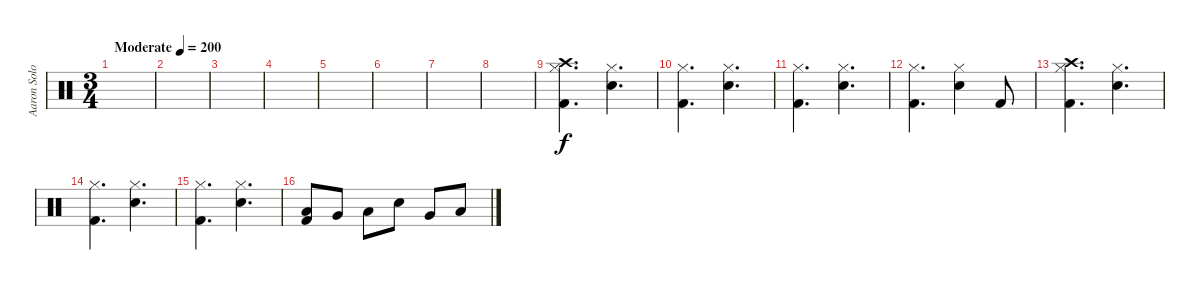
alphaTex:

\track ("Aaron Solowoniuk" "Aaron Solo") {instrument percussion}
\staff {score}
\articulation defaults
\ts (3 4)
\tempo (200 "Moderate")
\clef neutral
\ks c
|
|
|
|
|
|
|
|
("Crash high (hit)" "Hi-Hat (closed)" "Kick (hit) 2").4{d} ("Hi-Hat (closed)" "Snare (hit) 2").4{d} |
("Hi-Hat (closed)" "Kick (hit) 2").4{d} ("Hi-Hat (closed)" "Snare (hit) 2").4{d} |
("Hi-Hat (closed)" "Kick (hit) 2").4{d} ("Hi-Hat (closed)" "Snare (hit) 2").4{d} |
("Hi-Hat (closed)" "Kick (hit) 2").4{d} ("Hi-Hat (closed)" "Snare (hit) 2").4 "Kick (hit) 2".8 |
("Crash high (hit)" "Hi-Hat (closed)" "Kick (hit) 2").4{d} ("Hi-Hat (closed)" "Snare (hit) 2").4{d} |
("Hi-Hat (closed)" "Kick (hit) 2").4{d} ("Hi-Hat (closed)" "Snare (hit) 2").4{d} |
("Hi-Hat (closed)" "Kick (hit) 2").4{d} ("Hi-Hat (closed)" "Snare (hit) 2").4{d} |
("Kick (hit) 2" "Low Tom (hit)").8 "Very Low Tom (hit)".8 "Low Floor Tom (hit)".8 "Snare (hit) 2".8 "Very Low Tom (hit)".8 "Low Floor Tom (hit)".8
